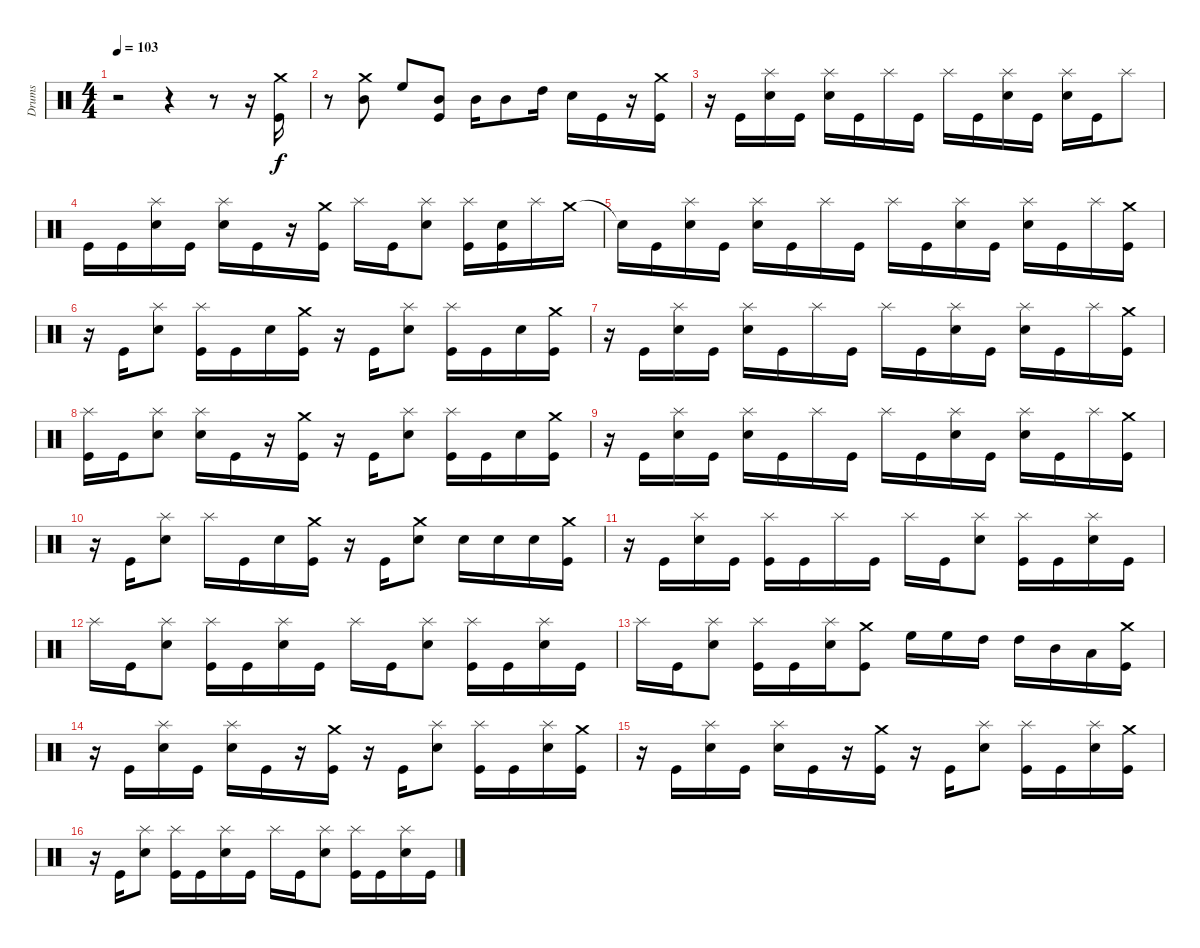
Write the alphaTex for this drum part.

\track ("Drums" "Drums") {instrument percussion}
\staff {score}
\articulation defaults
\ts (4 4)
\tempo 103
\clef neutral
\ks c
r.2{dy f} r.4 r.8 r.16 ("Crash medium (hit)" "Kick (hit)").16 |
r.8 ("Crash medium (hit)" "Mid Tom (hit)").8 "High Floor Tom (hit)".8 ("Kick (hit)" "Mid Tom (hit)").8 "Mid Tom (hit)".16 "Mid Tom (hit)".8 "High Tom (hit)".16 "Electric Snare (hit)".16 "Kick (hit)".16 r.16 ("Crash medium (hit)" "Kick (hit)").16 |
r.16 "Kick (hit)".16 ("Splash (hit)" "Electric Snare (hit)").16 "Kick (hit)".16 ("Splash (hit)" "Electric Snare (hit)").16 "Kick (hit)".16 "Splash (hit)".16 "Kick (hit)".16 "Splash (hit)".16 "Kick (hit)".16 ("Splash (hit)" "Electric Snare (hit)").16 "Kick (hit)".16 ("Splash (hit)" "Electric Snare (hit)").16 "Kick (hit)".16 "Splash (hit)".8 |
"Kick (hit)".16 "Kick (hit)".16 ("Splash (hit)" "Electric Snare (hit)").16 "Kick (hit)".16 ("Splash (hit)" "Electric Snare (hit)").16 "Kick (hit)".16 r.16 ("Crash medium (hit)" "Kick (hit)").16 "Splash (hit)".16 "Kick (hit)".16 ("Splash (hit)" "Electric Snare (hit)").8 ("Kick (hit)" "Splash (hit)").16 ("Electric Snare (hit)" "Kick (hit)").16 "Splash (hit)".16 "Crash medium (hit)".16 |
"Snare (hit)"{t}.16 "Kick (hit)".16 ("Splash (hit)" "Electric Snare (hit)").16 "Kick (hit)".16 ("Splash (hit)" "Electric Snare (hit)").16 "Kick (hit)".16 "Splash (hit)".16 "Kick (hit)".16 "Splash (hit)".16 "Kick (hit)".16 ("Splash (hit)" "Electric Snare (hit)").16 "Kick (hit)".16 ("Splash (hit)" "Electric Snare (hit)").16 "Kick (hit)".16 "Splash (hit)".16 ("Crash medium (hit)" "Kick (hit)").16 |
r.16 "Kick (hit)".16 ("Splash (hit)" "Electric Snare (hit)").8 ("Kick (hit)" "Splash (hit)").16 "Kick (hit)".16 "Electric Snare (hit)".16 ("Crash medium (hit)" "Kick (hit)").16 r.16 "Kick (hit)".16 ("Splash (hit)" "Electric Snare (hit)").8 ("Kick (hit)" "Splash (hit)").16 "Kick (hit)".16 "Electric Snare (hit)".16 ("Crash medium (hit)" "Kick (hit)").16 |
r.16 "Kick (hit)".16 ("Splash (hit)" "Electric Snare (hit)").16 "Kick (hit)".16 ("Splash (hit)" "Electric Snare (hit)").16 "Kick (hit)".16 "Splash (hit)".16 "Kick (hit)".16 "Splash (hit)".16 "Kick (hit)".16 ("Splash (hit)" "Electric Snare (hit)").16 "Kick (hit)".16 ("Splash (hit)" "Electric Snare (hit)").16 "Kick (hit)".16 "Splash (hit)".16 ("Kick (hit)" "Crash medium (hit)").16 |
("Splash (hit)" "Kick (hit)").16 "Kick (hit)".16 ("Splash (hit)" "Electric Snare (hit)").8 ("Electric Snare (hit)" "Splash (hit)").16 "Kick (hit)".16 r.16 ("Crash medium (hit)" "Kick (hit)").16 r.16 "Kick (hit)".16 ("Splash (hit)" "Electric Snare (hit)").8 ("Kick (hit)" "Splash (hit)").16 "Kick (hit)".16 "Electric Snare (hit)".16 ("Crash medium (hit)" "Kick (hit)").16 |
r.16 "Kick (hit)".16 ("Splash (hit)" "Electric Snare (hit)").16 "Kick (hit)".16 ("Splash (hit)" "Electric Snare (hit)").16 "Kick (hit)".16 "Splash (hit)".16 "Kick (hit)".16 "Splash (hit)".16 "Kick (hit)".16 ("Splash (hit)" "Electric Snare (hit)").16 "Kick (hit)".16 ("Splash (hit)" "Electric Snare (hit)").16 "Kick (hit)".16 "Splash (hit)".16 ("Crash medium (hit)" "Kick (hit)").16 |
r.16 "Kick (hit)".16 ("Splash (hit)" "Electric Snare (hit)").8 "Splash (hit)".16 "Kick (hit)".16 "Electric Snare (hit)".16 ("Crash medium (hit)" "Kick (hit)").16 r.16 "Kick (hit)".16 ("Crash medium (hit)" "Electric Snare (hit)").8 "Electric Snare (hit)".16 "Electric Snare (hit)".16 "Electric Snare (hit)".16 ("Crash medium (hit)" "Kick (hit)").16 |
r.16 "Kick (hit)".16 ("Splash (hit)" "Electric Snare (hit)").16 "Kick (hit)".16 ("Kick (hit)" "Splash (hit)").16 "Kick (hit)".16 "Splash (hit)".16 "Kick (hit)".16 "Splash (hit)".16 "Kick (hit)".16 ("Splash (hit)" "Electric Snare (hit)").8 ("Kick (hit)" "Splash (hit)").16 "Kick (hit)".16 ("Splash (hit)" "Electric Snare (hit)").16 "Kick (hit)".16 |
"Splash (hit)".16 "Kick (hit)".16 ("Splash (hit)" "Electric Snare (hit)").8 ("Kick (hit)" "Splash (hit)").16 "Kick (hit)".16 ("Splash (hit)" "Electric Snare (hit)").16 "Kick (hit)".16 "Splash (hit)".16 "Kick (hit)".16 ("Splash (hit)" "Electric Snare (hit)").8 ("Kick (hit)" "Splash (hit)").16 "Kick (hit)".16 ("Splash (hit)" "Electric Snare (hit)").16 "Kick (hit)".16 |
"Splash (hit)".16 "Kick (hit)".16 ("Splash (hit)" "Electric Snare (hit)").8 ("Splash (hit)" "Kick (hit)").16 "Kick (hit)".16 ("Splash (hit)" "Electric Snare (hit)").16 ("Kick (hit)" "Crash medium (hit)").8 "High Floor Tom (hit)".16 "High Floor Tom (hit)".16 "High Tom (hit)".16 "High Tom (hit)".16 "Mid Tom (hit)".16 "Low Tom (hit)".16 ("Crash medium (hit)" "Kick (hit)").16 |
r.16 "Kick (hit)".16 ("Splash (hit)" "Electric Snare (hit)").16 "Kick (hit)".16 ("Electric Snare (hit)" "Splash (hit)").16 "Kick (hit)".16 r.16 ("Crash medium (hit)" "Kick (hit)").16 r.16 "Kick (hit)".16 ("Splash (hit)" "Electric Snare (hit)").8 ("Kick (hit)" "Splash (hit)").16 "Kick (hit)".16 ("Splash (hit)" "Electric Snare (hit)").16 ("Crash medium (hit)" "Kick (hit)").16 |
r.16 "Kick (hit)".16 ("Splash (hit)" "Electric Snare (hit)").16 "Kick (hit)".16 ("Electric Snare (hit)" "Splash (hit)").16 "Kick (hit)".16 r.16 ("Crash medium (hit)" "Kick (hit)").16 r.16 "Kick (hit)".16 ("Splash (hit)" "Electric Snare (hit)").8 ("Kick (hit)" "Splash (hit)").16 "Kick (hit)".16 ("Splash (hit)" "Electric Snare (hit)").16 ("Crash medium (hit)" "Kick (hit)").16 |
r.16 "Kick (hit)".16 ("Splash (hit)" "Electric Snare (hit)").8 ("Kick (hit)" "Splash (hit)").16 "Kick (hit)".16 ("Splash (hit)" "Electric Snare (hit)").16 "Kick (hit)".16 "Splash (hit)".16 "Kick (hit)".16 ("Splash (hit)" "Electric Snare (hit)").8 ("Kick (hit)" "Splash (hit)").16 "Kick (hit)".16 ("Splash (hit)" "Electric Snare (hit)").16 "Kick (hit)".16
